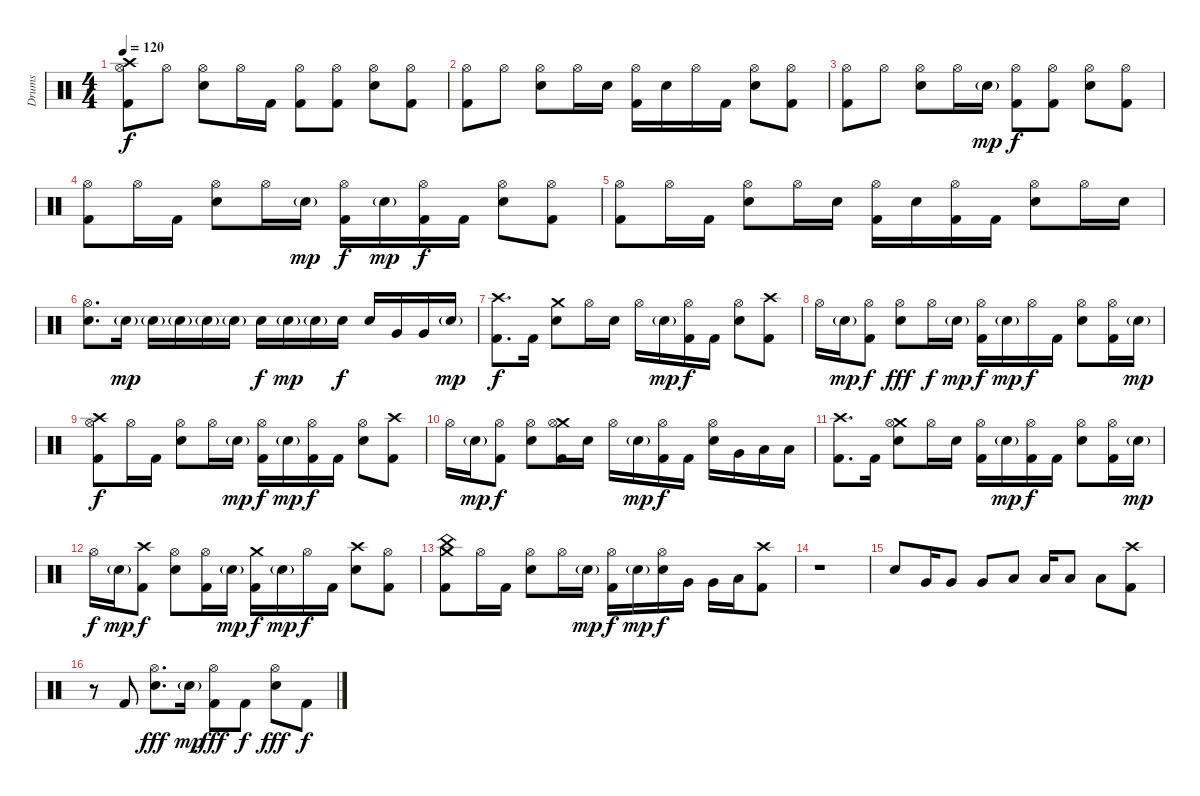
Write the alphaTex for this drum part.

\track ("Drums" "Drums") {instrument percussion}
\staff {score}
\articulation defaults
\ts (4 4)
\tempo 120
\clef neutral
\ks c
("Crash high (hit)" "Hi-Hat (open)" "Kick (hit) 2").8{dy f} "Hi-Hat (open)".8 ("Hi-Hat (open)" "Electric Snare (hit)").8 "Hi-Hat (open)".16 "Kick (hit) 2".16 ("Hi-Hat (open)" "Kick (hit) 2").8 ("Hi-Hat (open)" "Kick (hit) 2").8 ("Hi-Hat (open)" "Electric Snare (hit)").8 ("Hi-Hat (open)" "Kick (hit) 2").8 |
("Hi-Hat (open)" "Kick (hit) 2").8 "Hi-Hat (open)".8 ("Hi-Hat (open)" "Electric Snare (hit)").8 "Hi-Hat (open)".16 "Electric Snare (hit)".16 ("Hi-Hat (open)" "Kick (hit) 2").16 "Electric Snare (hit)".16 "Hi-Hat (open)".16 "Kick (hit) 2".16 ("Hi-Hat (open)" "Electric Snare (hit)").8 ("Hi-Hat (open)" "Kick (hit) 2").8 |
("Hi-Hat (open)" "Kick (hit) 2").8 "Hi-Hat (open)".8 ("Hi-Hat (open)" "Electric Snare (hit)").8 "Hi-Hat (open)".16 "Electric Snare (hit)"{g}.16{dy mp} ("Hi-Hat (open)" "Kick (hit) 2").8{dy f} ("Hi-Hat (open)" "Kick (hit) 2").8 ("Hi-Hat (open)" "Electric Snare (hit)").8 ("Hi-Hat (open)" "Kick (hit) 2").8 |
("Hi-Hat (open)" "Kick (hit) 2").8 "Hi-Hat (open)".16 "Kick (hit) 2".16 ("Hi-Hat (open)" "Electric Snare (hit)").8 "Hi-Hat (open)".16 "Electric Snare (hit)"{g}.16{dy mp} ("Hi-Hat (open)" "Kick (hit) 2").16{dy f} "Electric Snare (hit)"{g}.16{dy mp} ("Hi-Hat (open)" "Kick (hit) 2").16{dy f} "Kick (hit) 2".16 ("Hi-Hat (open)" "Electric Snare (hit)").8 ("Hi-Hat (open)" "Kick (hit) 2").8 |
("Hi-Hat (open)" "Kick (hit) 2").8 "Hi-Hat (open)".16 "Kick (hit) 2".16 ("Hi-Hat (open)" "Electric Snare (hit)").8 "Hi-Hat (open)".16 "Electric Snare (hit)".16 ("Hi-Hat (open)" "Kick (hit) 2").16 "Electric Snare (hit)".16 ("Hi-Hat (open)" "Kick (hit) 2").16 "Kick (hit) 2".16 ("Hi-Hat (open)" "Electric Snare (hit)").8 "Hi-Hat (open)".16 "Electric Snare (hit)".16 |
("Hi-Hat (open)" "Electric Snare (hit)").8{d} "Electric Snare (hit)"{g}.16{dy mp} "Electric Snare (hit)"{g}.16 "Electric Snare (hit)"{g}.16 "Electric Snare (hit)"{g}.16 "Electric Snare (hit)"{g}.16 "Electric Snare (hit)".16{dy f} "Electric Snare (hit)"{g}.16{dy mp} "Electric Snare (hit)"{g}.16 "Electric Snare (hit)".16{dy f} "Electric Snare (hit)".16 "Very Low Tom (hit)".16 "Very Low Tom (hit)".16 "Electric Snare (hit)"{g}.16{dy mp} |
("Crash high (hit)" "Kick (hit) 2").8{d dy f} "Kick (hit) 2".16 ("Crash medium (hit)" "Electric Snare (hit)").8 "Hi-Hat (open)".16 "Electric Snare (hit)".16 "Hi-Hat (open)".16 "Electric Snare (hit)"{g}.16{dy mp} ("Hi-Hat (open)" "Kick (hit) 2").16{dy f} "Kick (hit) 2".16 ("Hi-Hat (open)" "Electric Snare (hit)").8 ("Crash high (hit)" "Kick (hit) 2").8 |
"Hi-Hat (open)".16 "Electric Snare (hit)"{g}.16{dy mp} ("Hi-Hat (open)" "Kick (hit) 2").8{dy f} ("Hi-Hat (open)" "Electric Snare (hit)").8{dy fff} "Hi-Hat (open)".16{dy f} "Electric Snare (hit)"{g}.16{dy mp} ("Hi-Hat (open)" "Kick (hit) 2").16{dy f} "Electric Snare (hit)"{g}.16{dy mp} "Hi-Hat (open)".16{dy f} "Kick (hit) 2".16 ("Hi-Hat (open)" "Electric Snare (hit)").8 ("Hi-Hat (open)" "Kick (hit) 2").16 "Electric Snare (hit)"{g}.16{dy mp} |
("Crash high (hit)" "Hi-Hat (open)" "Kick (hit) 2").8{dy f} "Hi-Hat (open)".16 "Kick (hit) 2".16 ("Hi-Hat (open)" "Electric Snare (hit)").8 "Hi-Hat (open)".16 "Electric Snare (hit)"{g}.16{dy mp} ("Hi-Hat (open)" "Kick (hit) 2").16{dy f} "Electric Snare (hit)"{g}.16{dy mp} ("Hi-Hat (open)" "Kick (hit) 2").16{dy f} "Kick (hit) 2".16 ("Hi-Hat (open)" "Electric Snare (hit)").8 ("Crash high (hit)" "Kick (hit) 2").8 |
"Hi-Hat (open)".16 "Electric Snare (hit)"{g}.16{dy mp} ("Hi-Hat (open)" "Kick (hit) 2").8{dy f} ("Hi-Hat (open)" "Electric Snare (hit)").8 ("Crash medium (hit)" "Hi-Hat (open)" "Kick (hit) 2").16 "Electric Snare (hit)".16 "Hi-Hat (open)".16 "Electric Snare (hit)"{g}.16{dy mp} ("Hi-Hat (open)" "Kick (hit) 2").16{dy f} "Kick (hit) 2".16 ("Hi-Hat (open)" "Electric Snare (hit)").16 "Very Low Tom (hit)".16 "Low Floor Tom (hit)".16 "Low Floor Tom (hit)".16 |
("Crash high (hit)" "Kick (hit) 2").8{d} "Kick (hit) 2".16 ("Crash medium (hit)" "Hi-Hat (open)" "Electric Snare (hit)").8 "Hi-Hat (open)".16 "Electric Snare (hit)".16 ("Hi-Hat (open)" "Kick (hit) 2").16 "Electric Snare (hit)"{g}.16{dy mp} ("Hi-Hat (open)" "Kick (hit) 2").16{dy f} "Kick (hit) 2".16 ("Hi-Hat (open)" "Electric Snare (hit)").8 ("Hi-Hat (open)" "Kick (hit) 2").16 "Electric Snare (hit)"{g}.16{dy mp} |
"Hi-Hat (open)".16{dy f} "Electric Snare (hit)"{g}.16{dy mp} ("Crash high (hit)" "Kick (hit) 2").8{dy f} ("Hi-Hat (open)" "Electric Snare (hit)").8 ("Hi-Hat (open)" "Kick (hit) 2").16 "Electric Snare (hit)"{g}.16{dy mp} ("Crash medium (hit)" "Kick (hit) 2").16{dy f} "Electric Snare (hit)"{g}.16{dy mp} "Hi-Hat (open)".16{dy f} "Kick (hit) 2".16 ("Crash high (hit)" "Electric Snare (hit)").8 ("Hi-Hat (open)" "Kick (hit) 2").8 |
("Crash medium (hit)" "China (hit)" "Kick (hit) 2").8 "Hi-Hat (open)".16 "Kick (hit) 2".16 ("Hi-Hat (open)" "Electric Snare (hit)").8 "Hi-Hat (open)".16 "Electric Snare (hit)"{g}.16{dy mp} ("Hi-Hat (open)" "Kick (hit) 2").16{dy f} "Electric Snare (hit)"{g}.16{dy mp} ("Hi-Hat (open)" "Electric Snare (hit)").16{dy f} "Very Low Tom (hit)".16 "Very Low Tom (hit)".16 "Low Floor Tom (hit)".16 ("Crash high (hit)" "Kick (hit) 2").8 |
r.1 |
"Electric Snare (hit)".8 "Very Low Tom (hit)".16 "Very Low Tom (hit)".8 "Very Low Tom (hit)".8 "Low Floor Tom (hit)".8 "Low Floor Tom (hit)".16 "Low Floor Tom (hit)".8 "Low Floor Tom (hit)".8 ("Crash high (hit)" "Kick (hit) 2").8 |
r.8 "Kick (hit) 2".8 ("Hi-Hat (open)" "Electric Snare (hit)").8{d dy fff} "Electric Snare (hit)"{g}.16{dy mp} ("Hi-Hat (open)" "Kick (hit) 2").8{dy fff} "Kick (hit) 2".8{dy f} ("Hi-Hat (open)" "Electric Snare (hit)").8{dy fff} "Kick (hit) 2".8{dy f}
